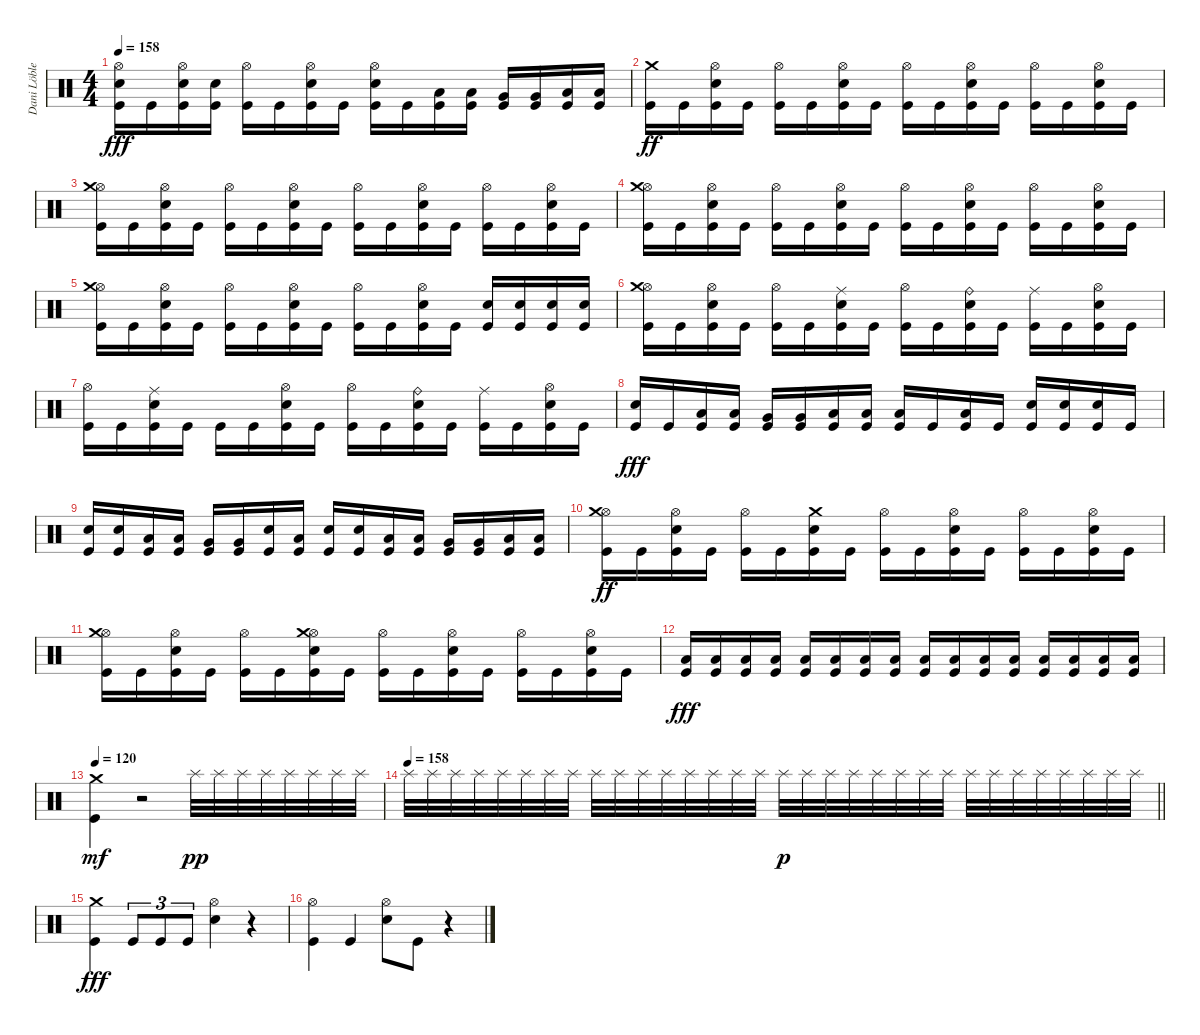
\track ("Dani Löble" "Dani Löble") {instrument percussion}
\staff {score}
\articulation defaults
\ts (4 4)
\tempo 158
\clef neutral
\ks c
("Hi-Hat (open)" "Electric Snare (hit)" "Kick (hit)").16{dy fff} "Kick (hit)".16 ("Hi-Hat (open)" "Electric Snare (hit)" "Kick (hit)").16 ("Electric Snare (hit)" "Kick (hit)").16 ("Hi-Hat (open)" "Kick (hit)").16 "Kick (hit)".16 ("Hi-Hat (open)" "Electric Snare (hit)" "Kick (hit)").16 "Kick (hit)".16 ("Hi-Hat (open)" "Electric Snare (hit)" "Kick (hit)").16 "Kick (hit)".16 ("Low Tom (hit)" "Kick (hit)").16 ("Low Tom (hit)" "Kick (hit)").16 ("Very Low Tom (hit)" "Kick (hit)").16 ("Very Low Tom (hit)" "Kick (hit)").16 ("Low Floor Tom (hit)" "Kick (hit)").16 ("Low Floor Tom (hit)" "Kick (hit)").16 |
("Crash medium (hit)" "Kick (hit)").16{dy ff} "Kick (hit)".16 ("Hi-Hat (open)" "Electric Snare (hit)" "Kick (hit)").16 "Kick (hit)".16 ("Hi-Hat (open)" "Kick (hit)").16 "Kick (hit)".16 ("Hi-Hat (open)" "Electric Snare (hit)" "Kick (hit)").16 "Kick (hit)".16 ("Hi-Hat (open)" "Kick (hit)").16 "Kick (hit)".16 ("Hi-Hat (open)" "Electric Snare (hit)" "Kick (hit)").16 "Kick (hit)".16 ("Hi-Hat (open)" "Kick (hit)").16 "Kick (hit)".16 ("Hi-Hat (open)" "Electric Snare (hit)" "Kick (hit)").16 "Kick (hit)".16 |
("Hi-Hat (open)" "Crash medium (hit)" "Kick (hit)").16 "Kick (hit)".16 ("Hi-Hat (open)" "Electric Snare (hit)" "Kick (hit)").16 "Kick (hit)".16 ("Hi-Hat (open)" "Kick (hit)").16 "Kick (hit)".16 ("Hi-Hat (open)" "Electric Snare (hit)" "Kick (hit)").16 "Kick (hit)".16 ("Hi-Hat (open)" "Kick (hit)").16 "Kick (hit)".16 ("Hi-Hat (open)" "Electric Snare (hit)" "Kick (hit)").16 "Kick (hit)".16 ("Hi-Hat (open)" "Kick (hit)").16 "Kick (hit)".16 ("Hi-Hat (open)" "Electric Snare (hit)" "Kick (hit)").16 "Kick (hit)".16 |
("Hi-Hat (open)" "Crash medium (hit)" "Kick (hit)").16 "Kick (hit)".16 ("Hi-Hat (open)" "Electric Snare (hit)" "Kick (hit)").16 "Kick (hit)".16 ("Hi-Hat (open)" "Kick (hit)").16 "Kick (hit)".16 ("Hi-Hat (open)" "Electric Snare (hit)" "Kick (hit)").16 "Kick (hit)".16 ("Hi-Hat (open)" "Kick (hit)").16 "Kick (hit)".16 ("Hi-Hat (open)" "Electric Snare (hit)" "Kick (hit)").16 "Kick (hit)".16 ("Hi-Hat (open)" "Kick (hit)").16 "Kick (hit)".16 ("Hi-Hat (open)" "Electric Snare (hit)" "Kick (hit)").16 "Kick (hit)".16 |
("Hi-Hat (open)" "Crash medium (hit)" "Kick (hit)").16 "Kick (hit)".16 ("Hi-Hat (open)" "Electric Snare (hit)" "Kick (hit)").16 "Kick (hit)".16 ("Hi-Hat (open)" "Kick (hit)").16 "Kick (hit)".16 ("Hi-Hat (open)" "Electric Snare (hit)" "Kick (hit)").16 "Kick (hit)".16 ("Hi-Hat (open)" "Kick (hit)").16 "Kick (hit)".16 ("Hi-Hat (open)" "Electric Snare (hit)" "Kick (hit)").16 "Kick (hit)".16 ("Electric Snare (hit)" "Kick (hit)").16 ("Electric Snare (hit)" "Kick (hit)").16 ("Electric Snare (hit)" "Kick (hit)").16 ("Electric Snare (hit)" "Kick (hit)").16 |
("Hi-Hat (open)" "Crash medium (hit)" "Kick (hit)").16 "Kick (hit)".16 ("Hi-Hat (open)" "Electric Snare (hit)" "Kick (hit)").16 "Kick (hit)".16 ("Hi-Hat (open)" "Kick (hit)").16 "Kick (hit)".16 ("Ride (middle)" "Electric Snare (hit)" "Kick (hit)").16 "Kick (hit)".16 ("Hi-Hat (open)" "Kick (hit)").16 "Kick (hit)".16 ("Ride (bell)" "Electric Snare (hit)" "Kick (hit)").16 "Kick (hit)".16 ("Ride (middle)" "Kick (hit)").16 "Kick (hit)".16 ("Hi-Hat (open)" "Electric Snare (hit)" "Kick (hit)").16 "Kick (hit)".16 |
("Hi-Hat (open)" "Kick (hit)").16 "Kick (hit)".16 ("Ride (middle)" "Electric Snare (hit)" "Kick (hit)").16 "Kick (hit)".16 "Kick (hit)".16 "Kick (hit)".16 ("Hi-Hat (open)" "Electric Snare (hit)" "Kick (hit)").16 "Kick (hit)".16 ("Hi-Hat (open)" "Kick (hit)").16 "Kick (hit)".16 ("Ride (bell)" "Electric Snare (hit)" "Kick (hit)").16 "Kick (hit)".16 ("Ride (middle)" "Kick (hit)").16 "Kick (hit)".16 ("Hi-Hat (open)" "Electric Snare (hit)" "Kick (hit)").16 "Kick (hit)".16 |
("Electric Snare (hit)" "Kick (hit)").16{dy fff} "Kick (hit)".16 ("Low Tom (hit)" "Kick (hit)").16 ("Low Tom (hit)" "Kick (hit)").16 ("Very Low Tom (hit)" "Kick (hit)").16 ("Very Low Tom (hit)" "Kick (hit)").16 ("Low Floor Tom (hit)" "Kick (hit)").16 ("Low Floor Tom (hit)" "Kick (hit)").16 ("Low Floor Tom (hit)" "Kick (hit)").16 "Kick (hit)".16 ("Low Floor Tom (hit)" "Kick (hit)").16 "Kick (hit)".16 ("Electric Snare (hit)" "Kick (hit)").16 ("Electric Snare (hit)" "Kick (hit)").16 ("Electric Snare (hit)" "Kick (hit)").16 "Kick (hit)".16 |
("Electric Snare (hit)" "Kick (hit)").16 ("Electric Snare (hit)" "Kick (hit)").16 ("Low Tom (hit)" "Kick (hit)").16 ("Low Tom (hit)" "Kick (hit)").16 ("Very Low Tom (hit)" "Kick (hit)").16 ("Very Low Tom (hit)" "Kick (hit)").16 ("Electric Snare (hit)" "Kick (hit)").16 ("Low Floor Tom (hit)" "Kick (hit)").16 ("Electric Snare (hit)" "Kick (hit)").16 ("Electric Snare (hit)" "Kick (hit)").16 ("Low Tom (hit)" "Kick (hit)").16 ("Low Tom (hit)" "Kick (hit)").16 ("Very Low Tom (hit)" "Kick (hit)").16 ("Very Low Tom (hit)" "Kick (hit)").16 ("Low Floor Tom (hit)" "Kick (hit)").16 ("Low Floor Tom (hit)" "Kick (hit)").16 |
("Hi-Hat (open)" "Crash medium (hit)" "Kick (hit)").16{dy ff} "Kick (hit)".16 ("Hi-Hat (open)" "Electric Snare (hit)" "Kick (hit)").16 "Kick (hit)".16 ("Hi-Hat (open)" "Kick (hit)").16 "Kick (hit)".16 ("Crash medium (hit)" "Electric Snare (hit)" "Kick (hit)").16 "Kick (hit)".16 ("Hi-Hat (open)" "Kick (hit)").16 "Kick (hit)".16 ("Hi-Hat (open)" "Electric Snare (hit)" "Kick (hit)").16 "Kick (hit)".16 ("Hi-Hat (open)" "Kick (hit)").16 "Kick (hit)".16 ("Hi-Hat (open)" "Electric Snare (hit)" "Kick (hit)").16 "Kick (hit)".16 |
("Hi-Hat (open)" "Crash medium (hit)" "Kick (hit)").16 "Kick (hit)".16 ("Hi-Hat (open)" "Electric Snare (hit)" "Kick (hit)").16 "Kick (hit)".16 ("Hi-Hat (open)" "Kick (hit)").16 "Kick (hit)".16 ("Hi-Hat (open)" "Crash medium (hit)" "Electric Snare (hit)" "Kick (hit)").16 "Kick (hit)".16 ("Hi-Hat (open)" "Kick (hit)").16 "Kick (hit)".16 ("Hi-Hat (open)" "Electric Snare (hit)" "Kick (hit)").16 "Kick (hit)".16 ("Hi-Hat (open)" "Kick (hit)").16 "Kick (hit)".16 ("Hi-Hat (open)" "Electric Snare (hit)" "Kick (hit)").16 "Kick (hit)".16 |
("Low Tom (hit)" "Kick (hit)").16{dy fff} ("Low Floor Tom (hit)" "Kick (hit)").16 ("Low Floor Tom (hit)" "Kick (hit)").16 ("Low Tom (hit)" "Kick (hit)").16 ("Low Floor Tom (hit)" "Kick (hit)").16 ("Low Floor Tom (hit)" "Kick (hit)").16 ("Low Tom (hit)" "Kick (hit)").16 ("Low Floor Tom (hit)" "Kick (hit)").16 ("Low Tom (hit)" "Kick (hit)").16 ("Low Floor Tom (hit)" "Kick (hit)").16 ("Low Floor Tom (hit)" "Kick (hit)").16 ("Low Tom (hit)" "Kick (hit)").16 ("Low Floor Tom (hit)" "Kick (hit)").16 ("Low Floor Tom (hit)" "Kick (hit)").16 ("Low Tom (hit)" "Kick (hit)").16 ("Low Floor Tom (hit)" "Kick (hit)").16 |
\tempo 120
("Crash medium (hit)" "Kick (hit)").4{dy mf} r.2 "Splash (hit)".32{dy pp} "Splash (hit)".32 "Splash (hit)".32 "Splash (hit)".32 "Splash (hit)".32 "Splash (hit)".32 "Splash (hit)".32 "Splash (hit)".32 |
\tempo 158
\barLineRight lightlight "Splash (hit)".32 "Splash (hit)".32 "Splash (hit)".32 "Splash (hit)".32 "Splash (hit)".32 "Splash (hit)".32 "Splash (hit)".32 "Splash (hit)".32 "Splash (hit)".32 "Splash (hit)".32 "Splash (hit)".32 "Splash (hit)".32 "Splash (hit)".32 "Splash (hit)".32 "Splash (hit)".32 "Splash (hit)".32 "Splash (hit)".32{dy p} "Splash (hit)".32 "Splash (hit)".32 "Splash (hit)".32 "Splash (hit)".32 "Splash (hit)".32 "Splash (hit)".32 "Splash (hit)".32 "Splash (hit)".32 "Splash (hit)".32 "Splash (hit)".32 "Splash (hit)".32 "Splash (hit)".32 "Splash (hit)".32 "Splash (hit)".32 "Splash (hit)".32
|
\section ("" "")
("Crash medium (hit)" "Kick (hit)").4{dy fff} "Kick (hit)".8{tu (3 2)} "Kick (hit)".8{tu (3 2)} "Kick (hit)".8{tu (3 2)} ("Hi-Hat (open)" "Electric Snare (hit)").4 r.4 |
("Hi-Hat (open)" "Kick (hit)").4 "Kick (hit)".4 ("Hi-Hat (open)" "Electric Snare (hit)").8 "Kick (hit)".8 r.4
